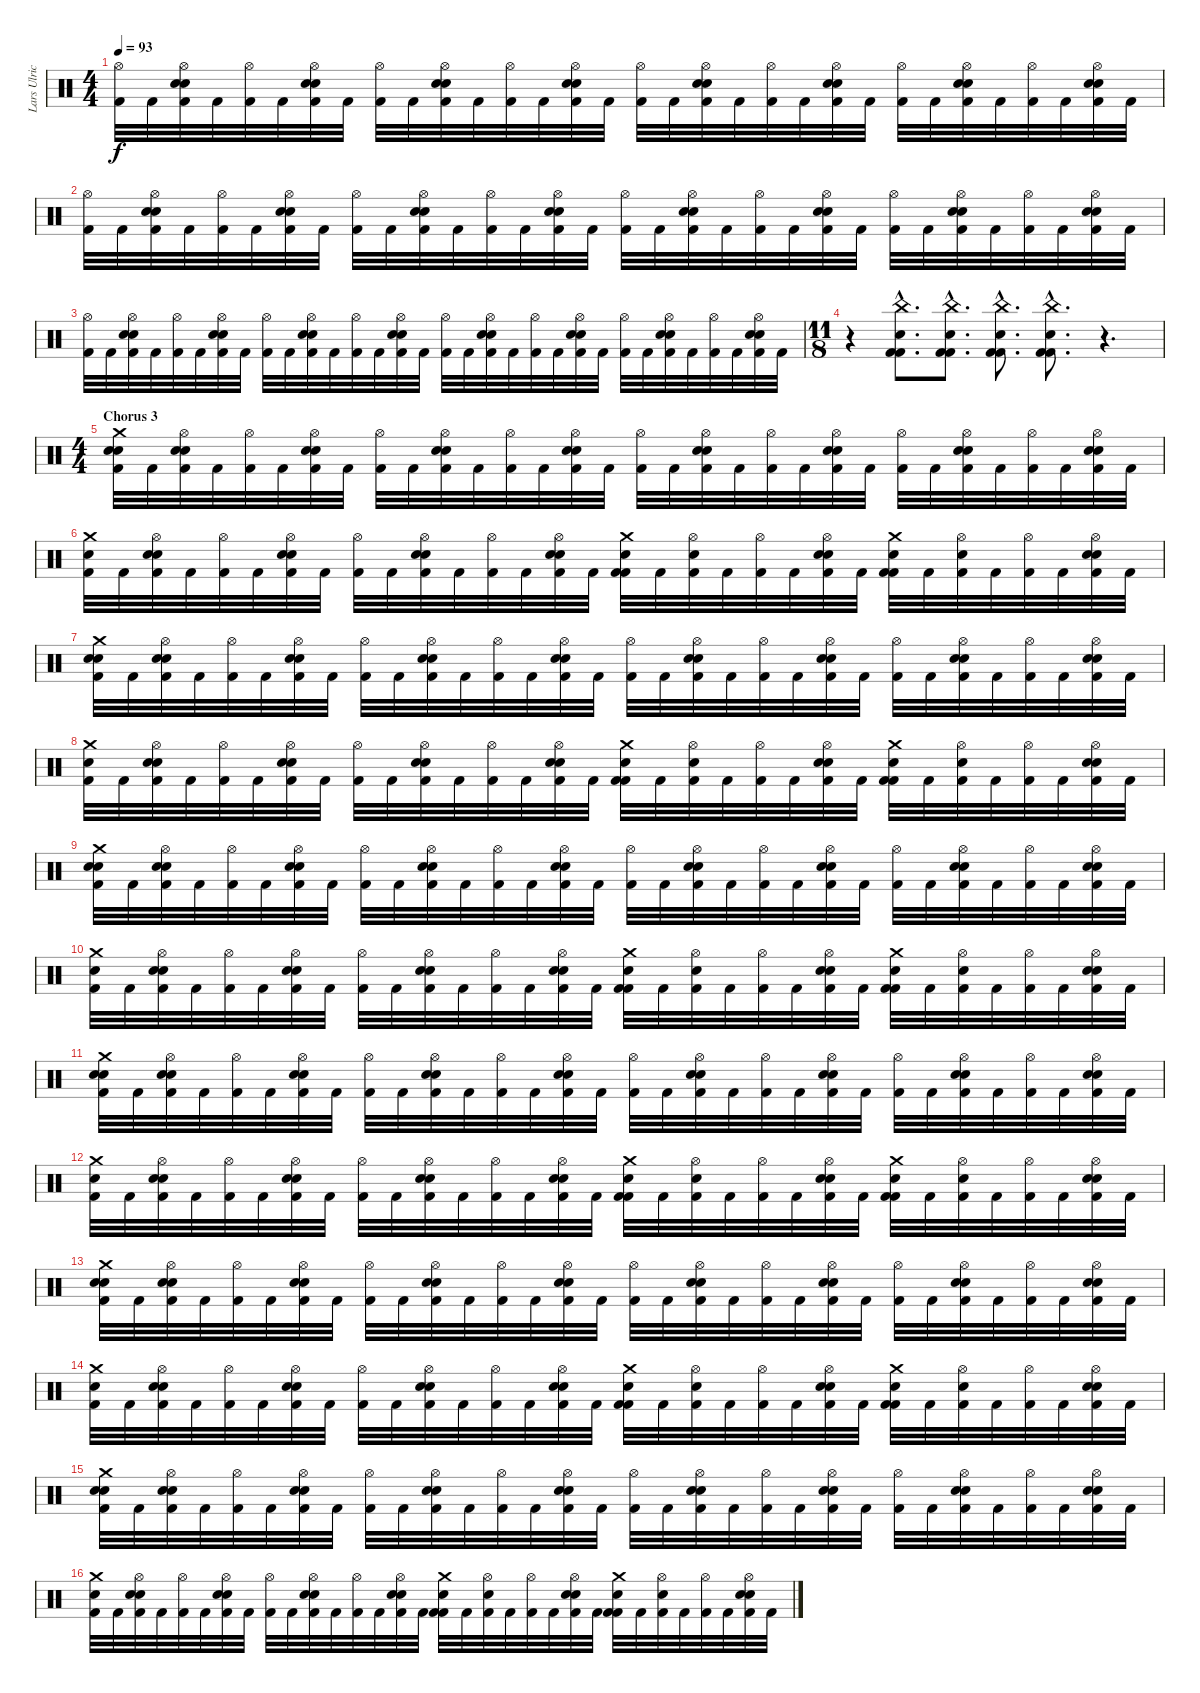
\track ("Lars Ulrich" "Lars Ulric") {instrument percussion}
\staff {score}
\articulation defaults
\ts (4 4)
\tempo 93
\clef neutral
\ks c
("Hi-Hat (open)" "Kick (hit) 2").32{dy f} "Kick (hit) 2".32 ("Hi-Hat (open)" "Electric Snare (hit)" "Snare (hit) 2" "Kick (hit) 2").32 "Kick (hit) 2".32 ("Hi-Hat (open)" "Kick (hit) 2").32 "Kick (hit) 2".32 ("Hi-Hat (open)" "Electric Snare (hit)" "Snare (hit) 2" "Kick (hit) 2").32 "Kick (hit) 2".32 ("Hi-Hat (open)" "Kick (hit) 2").32 "Kick (hit) 2".32 ("Hi-Hat (open)" "Electric Snare (hit)" "Snare (hit) 2" "Kick (hit) 2").32 "Kick (hit) 2".32 ("Hi-Hat (open)" "Kick (hit) 2").32 "Kick (hit) 2".32 ("Hi-Hat (open)" "Electric Snare (hit)" "Snare (hit) 2" "Kick (hit) 2").32 "Kick (hit) 2".32 ("Hi-Hat (open)" "Kick (hit) 2").32 "Kick (hit) 2".32 ("Hi-Hat (open)" "Electric Snare (hit)" "Snare (hit) 2" "Kick (hit) 2").32 "Kick (hit) 2".32 ("Hi-Hat (open)" "Kick (hit) 2").32 "Kick (hit) 2".32 ("Hi-Hat (open)" "Electric Snare (hit)" "Snare (hit) 2" "Kick (hit) 2").32 "Kick (hit) 2".32 ("Hi-Hat (open)" "Kick (hit) 2").32 "Kick (hit) 2".32 ("Hi-Hat (open)" "Electric Snare (hit)" "Snare (hit) 2" "Kick (hit) 2").32 "Kick (hit) 2".32 ("Hi-Hat (open)" "Kick (hit) 2").32 "Kick (hit) 2".32 ("Hi-Hat (open)" "Electric Snare (hit)" "Snare (hit) 2" "Kick (hit) 2").32 "Kick (hit) 2".32 |
("Hi-Hat (open)" "Kick (hit) 2").32 "Kick (hit) 2".32 ("Hi-Hat (open)" "Electric Snare (hit)" "Snare (hit) 2" "Kick (hit) 2").32 "Kick (hit) 2".32 ("Hi-Hat (open)" "Kick (hit) 2").32 "Kick (hit) 2".32 ("Hi-Hat (open)" "Electric Snare (hit)" "Snare (hit) 2" "Kick (hit) 2").32 "Kick (hit) 2".32 ("Hi-Hat (open)" "Kick (hit) 2").32 "Kick (hit) 2".32 ("Hi-Hat (open)" "Electric Snare (hit)" "Snare (hit) 2" "Kick (hit) 2").32 "Kick (hit) 2".32 ("Hi-Hat (open)" "Kick (hit) 2").32 "Kick (hit) 2".32 ("Hi-Hat (open)" "Electric Snare (hit)" "Snare (hit) 2" "Kick (hit) 2").32 "Kick (hit) 2".32 ("Hi-Hat (open)" "Kick (hit) 2").32 "Kick (hit) 2".32 ("Hi-Hat (open)" "Electric Snare (hit)" "Snare (hit) 2" "Kick (hit) 2").32 "Kick (hit) 2".32 ("Hi-Hat (open)" "Kick (hit) 2").32 "Kick (hit) 2".32 ("Hi-Hat (open)" "Electric Snare (hit)" "Snare (hit) 2" "Kick (hit) 2").32 "Kick (hit) 2".32 ("Hi-Hat (open)" "Kick (hit) 2").32 "Kick (hit) 2".32 ("Hi-Hat (open)" "Electric Snare (hit)" "Snare (hit) 2" "Kick (hit) 2").32 "Kick (hit) 2".32 ("Hi-Hat (open)" "Kick (hit) 2").32 "Kick (hit) 2".32 ("Hi-Hat (open)" "Electric Snare (hit)" "Snare (hit) 2" "Kick (hit) 2").32 "Kick (hit) 2".32 |
("Hi-Hat (open)" "Kick (hit) 2").32 "Kick (hit) 2".32 ("Hi-Hat (open)" "Electric Snare (hit)" "Snare (hit) 2" "Kick (hit) 2").32 "Kick (hit) 2".32 ("Hi-Hat (open)" "Kick (hit) 2").32 "Kick (hit) 2".32 ("Hi-Hat (open)" "Electric Snare (hit)" "Snare (hit) 2" "Kick (hit) 2").32 "Kick (hit) 2".32 ("Hi-Hat (open)" "Kick (hit) 2").32 "Kick (hit) 2".32 ("Hi-Hat (open)" "Electric Snare (hit)" "Snare (hit) 2" "Kick (hit) 2").32 "Kick (hit) 2".32 ("Hi-Hat (open)" "Kick (hit) 2").32 "Kick (hit) 2".32 ("Hi-Hat (open)" "Electric Snare (hit)" "Snare (hit) 2" "Kick (hit) 2").32 "Kick (hit) 2".32 ("Hi-Hat (open)" "Kick (hit) 2").32 "Kick (hit) 2".32 ("Hi-Hat (open)" "Electric Snare (hit)" "Snare (hit) 2" "Kick (hit) 2").32 "Kick (hit) 2".32 ("Hi-Hat (open)" "Kick (hit) 2").32 "Kick (hit) 2".32 ("Hi-Hat (open)" "Electric Snare (hit)" "Snare (hit) 2" "Kick (hit) 2").32 "Kick (hit) 2".32 ("Hi-Hat (open)" "Kick (hit) 2").32 "Kick (hit) 2".32 ("Hi-Hat (open)" "Electric Snare (hit)" "Snare (hit) 2" "Kick (hit) 2").32 "Kick (hit) 2".32 ("Hi-Hat (open)" "Kick (hit) 2").32 "Kick (hit) 2".32 ("Hi-Hat (open)" "Electric Snare (hit)" "Snare (hit) 2" "Kick (hit) 2").32 "Kick (hit) 2".32 |
\ts (11 8)
r.4 ("China (hit)"{hac} "Electric Snare (hit)"{hac} "Kick (hit) 2"{hac} "Kick (hit) 2"{hac}).8{d} ("China (hit)"{hac} "Electric Snare (hit)"{hac} "Kick (hit) 2"{hac} "Kick (hit) 2"{hac}).8{d} ("China (hit)"{hac} "Electric Snare (hit)"{hac} "Kick (hit) 2"{hac} "Kick (hit) 2"{hac}).8{d} ("China (hit)"{hac} "Electric Snare (hit)"{hac} "Kick (hit) 2"{hac} "Kick (hit) 2"{hac}).8{d} r.4{d} |
\ts (4 4)
\section ("" "Chorus 3")
("Crash medium (hit)" "Snare (hit) 2" "Snare (hit) 2" "Kick (hit) 2").32 "Kick (hit) 2".32 ("Hi-Hat (open)" "Electric Snare (hit)" "Snare (hit) 2" "Kick (hit) 2").32 "Kick (hit) 2".32 ("Hi-Hat (open)" "Kick (hit) 2").32 "Kick (hit) 2".32 ("Hi-Hat (open)" "Electric Snare (hit)" "Snare (hit) 2" "Kick (hit) 2").32 "Kick (hit) 2".32 ("Hi-Hat (open)" "Kick (hit) 2").32 "Kick (hit) 2".32 ("Hi-Hat (open)" "Electric Snare (hit)" "Snare (hit) 2" "Kick (hit) 2").32 "Kick (hit) 2".32 ("Hi-Hat (open)" "Kick (hit) 2").32 "Kick (hit) 2".32 ("Hi-Hat (open)" "Electric Snare (hit)" "Snare (hit) 2" "Kick (hit) 2").32 "Kick (hit) 2".32 ("Hi-Hat (open)" "Kick (hit) 2").32 "Kick (hit) 2".32 ("Hi-Hat (open)" "Electric Snare (hit)" "Snare (hit) 2" "Kick (hit) 2").32 "Kick (hit) 2".32 ("Hi-Hat (open)" "Kick (hit) 2").32 "Kick (hit) 2".32 ("Hi-Hat (open)" "Electric Snare (hit)" "Snare (hit) 2" "Kick (hit) 2").32 "Kick (hit) 2".32 ("Hi-Hat (open)" "Kick (hit) 2").32 "Kick (hit) 2".32 ("Hi-Hat (open)" "Electric Snare (hit)" "Snare (hit) 2" "Kick (hit) 2").32 "Kick (hit) 2".32 ("Hi-Hat (open)" "Kick (hit) 2").32 "Kick (hit) 2".32 ("Hi-Hat (open)" "Electric Snare (hit)" "Snare (hit) 2" "Kick (hit) 2").32 "Kick (hit) 2".32 |
("Crash medium (hit)" "Snare (hit) 2" "Kick (hit) 2").32 "Kick (hit) 2".32 ("Hi-Hat (open)" "Electric Snare (hit)" "Snare (hit) 2" "Kick (hit) 2").32 "Kick (hit) 2".32 ("Hi-Hat (open)" "Kick (hit) 2").32 "Kick (hit) 2".32 ("Hi-Hat (open)" "Electric Snare (hit)" "Snare (hit) 2" "Kick (hit) 2").32 "Kick (hit) 2".32 ("Hi-Hat (open)" "Kick (hit) 2").32 "Kick (hit) 2".32 ("Hi-Hat (open)" "Electric Snare (hit)" "Snare (hit) 2" "Kick (hit) 2").32 "Kick (hit) 2".32 ("Hi-Hat (open)" "Kick (hit) 2").32 "Kick (hit) 2".32 ("Hi-Hat (open)" "Electric Snare (hit)" "Snare (hit) 2" "Kick (hit) 2").32 "Kick (hit) 2".32 ("Crash medium (hit)" "Snare (hit) 2" "Kick (hit) 2" "Kick (hit) 2").32 "Kick (hit) 2".32 ("Hi-Hat (open)" "Electric Snare (hit)" "Kick (hit) 2").32 "Kick (hit) 2".32 ("Hi-Hat (open)" "Kick (hit) 2").32 "Kick (hit) 2".32 ("Hi-Hat (open)" "Electric Snare (hit)" "Snare (hit) 2" "Kick (hit) 2").32 "Kick (hit) 2".32 ("Crash medium (hit)" "Snare (hit) 2" "Kick (hit) 2" "Kick (hit) 2").32 "Kick (hit) 2".32 ("Hi-Hat (open)" "Electric Snare (hit)" "Kick (hit) 2").32 "Kick (hit) 2".32 ("Hi-Hat (open)" "Kick (hit) 2").32 "Kick (hit) 2".32 ("Hi-Hat (open)" "Electric Snare (hit)" "Snare (hit) 2" "Kick (hit) 2").32 "Kick (hit) 2".32 |
("Crash medium (hit)" "Snare (hit) 2" "Snare (hit) 2" "Kick (hit) 2").32 "Kick (hit) 2".32 ("Hi-Hat (open)" "Electric Snare (hit)" "Snare (hit) 2" "Kick (hit) 2").32 "Kick (hit) 2".32 ("Hi-Hat (open)" "Kick (hit) 2").32 "Kick (hit) 2".32 ("Hi-Hat (open)" "Electric Snare (hit)" "Snare (hit) 2" "Kick (hit) 2").32 "Kick (hit) 2".32 ("Hi-Hat (open)" "Kick (hit) 2").32 "Kick (hit) 2".32 ("Hi-Hat (open)" "Electric Snare (hit)" "Snare (hit) 2" "Kick (hit) 2").32 "Kick (hit) 2".32 ("Hi-Hat (open)" "Kick (hit) 2").32 "Kick (hit) 2".32 ("Hi-Hat (open)" "Electric Snare (hit)" "Snare (hit) 2" "Kick (hit) 2").32 "Kick (hit) 2".32 ("Hi-Hat (open)" "Kick (hit) 2").32 "Kick (hit) 2".32 ("Hi-Hat (open)" "Electric Snare (hit)" "Snare (hit) 2" "Kick (hit) 2").32 "Kick (hit) 2".32 ("Hi-Hat (open)" "Kick (hit) 2").32 "Kick (hit) 2".32 ("Hi-Hat (open)" "Electric Snare (hit)" "Snare (hit) 2" "Kick (hit) 2").32 "Kick (hit) 2".32 ("Hi-Hat (open)" "Kick (hit) 2").32 "Kick (hit) 2".32 ("Hi-Hat (open)" "Electric Snare (hit)" "Snare (hit) 2" "Kick (hit) 2").32 "Kick (hit) 2".32 ("Hi-Hat (open)" "Kick (hit) 2").32 "Kick (hit) 2".32 ("Hi-Hat (open)" "Electric Snare (hit)" "Snare (hit) 2" "Kick (hit) 2").32 "Kick (hit) 2".32 |
("Crash medium (hit)" "Snare (hit) 2" "Kick (hit) 2").32 "Kick (hit) 2".32 ("Hi-Hat (open)" "Electric Snare (hit)" "Snare (hit) 2" "Kick (hit) 2").32 "Kick (hit) 2".32 ("Hi-Hat (open)" "Kick (hit) 2").32 "Kick (hit) 2".32 ("Hi-Hat (open)" "Electric Snare (hit)" "Snare (hit) 2" "Kick (hit) 2").32 "Kick (hit) 2".32 ("Hi-Hat (open)" "Kick (hit) 2").32 "Kick (hit) 2".32 ("Hi-Hat (open)" "Electric Snare (hit)" "Snare (hit) 2" "Kick (hit) 2").32 "Kick (hit) 2".32 ("Hi-Hat (open)" "Kick (hit) 2").32 "Kick (hit) 2".32 ("Hi-Hat (open)" "Electric Snare (hit)" "Snare (hit) 2" "Kick (hit) 2").32 "Kick (hit) 2".32 ("Crash medium (hit)" "Snare (hit) 2" "Kick (hit) 2" "Kick (hit) 2").32 "Kick (hit) 2".32 ("Hi-Hat (open)" "Electric Snare (hit)" "Kick (hit) 2").32 "Kick (hit) 2".32 ("Hi-Hat (open)" "Kick (hit) 2").32 "Kick (hit) 2".32 ("Hi-Hat (open)" "Electric Snare (hit)" "Snare (hit) 2" "Kick (hit) 2").32 "Kick (hit) 2".32 ("Crash medium (hit)" "Snare (hit) 2" "Kick (hit) 2" "Kick (hit) 2").32 "Kick (hit) 2".32 ("Hi-Hat (open)" "Electric Snare (hit)" "Kick (hit) 2").32 "Kick (hit) 2".32 ("Hi-Hat (open)" "Kick (hit) 2").32 "Kick (hit) 2".32 ("Hi-Hat (open)" "Electric Snare (hit)" "Snare (hit) 2" "Kick (hit) 2").32 "Kick (hit) 2".32 |
("Crash medium (hit)" "Snare (hit) 2" "Snare (hit) 2" "Kick (hit) 2").32 "Kick (hit) 2".32 ("Hi-Hat (open)" "Electric Snare (hit)" "Snare (hit) 2" "Kick (hit) 2").32 "Kick (hit) 2".32 ("Hi-Hat (open)" "Kick (hit) 2").32 "Kick (hit) 2".32 ("Hi-Hat (open)" "Electric Snare (hit)" "Snare (hit) 2" "Kick (hit) 2").32 "Kick (hit) 2".32 ("Hi-Hat (open)" "Kick (hit) 2").32 "Kick (hit) 2".32 ("Hi-Hat (open)" "Electric Snare (hit)" "Snare (hit) 2" "Kick (hit) 2").32 "Kick (hit) 2".32 ("Hi-Hat (open)" "Kick (hit) 2").32 "Kick (hit) 2".32 ("Hi-Hat (open)" "Electric Snare (hit)" "Snare (hit) 2" "Kick (hit) 2").32 "Kick (hit) 2".32 ("Hi-Hat (open)" "Kick (hit) 2").32 "Kick (hit) 2".32 ("Hi-Hat (open)" "Electric Snare (hit)" "Snare (hit) 2" "Kick (hit) 2").32 "Kick (hit) 2".32 ("Hi-Hat (open)" "Kick (hit) 2").32 "Kick (hit) 2".32 ("Hi-Hat (open)" "Electric Snare (hit)" "Snare (hit) 2" "Kick (hit) 2").32 "Kick (hit) 2".32 ("Hi-Hat (open)" "Kick (hit) 2").32 "Kick (hit) 2".32 ("Hi-Hat (open)" "Electric Snare (hit)" "Snare (hit) 2" "Kick (hit) 2").32 "Kick (hit) 2".32 ("Hi-Hat (open)" "Kick (hit) 2").32 "Kick (hit) 2".32 ("Hi-Hat (open)" "Electric Snare (hit)" "Snare (hit) 2" "Kick (hit) 2").32 "Kick (hit) 2".32 |
("Crash medium (hit)" "Snare (hit) 2" "Kick (hit) 2").32 "Kick (hit) 2".32 ("Hi-Hat (open)" "Electric Snare (hit)" "Snare (hit) 2" "Kick (hit) 2").32 "Kick (hit) 2".32 ("Hi-Hat (open)" "Kick (hit) 2").32 "Kick (hit) 2".32 ("Hi-Hat (open)" "Electric Snare (hit)" "Snare (hit) 2" "Kick (hit) 2").32 "Kick (hit) 2".32 ("Hi-Hat (open)" "Kick (hit) 2").32 "Kick (hit) 2".32 ("Hi-Hat (open)" "Electric Snare (hit)" "Snare (hit) 2" "Kick (hit) 2").32 "Kick (hit) 2".32 ("Hi-Hat (open)" "Kick (hit) 2").32 "Kick (hit) 2".32 ("Hi-Hat (open)" "Electric Snare (hit)" "Snare (hit) 2" "Kick (hit) 2").32 "Kick (hit) 2".32 ("Crash medium (hit)" "Snare (hit) 2" "Kick (hit) 2" "Kick (hit) 2").32 "Kick (hit) 2".32 ("Hi-Hat (open)" "Electric Snare (hit)" "Kick (hit) 2").32 "Kick (hit) 2".32 ("Hi-Hat (open)" "Kick (hit) 2").32 "Kick (hit) 2".32 ("Hi-Hat (open)" "Electric Snare (hit)" "Snare (hit) 2" "Kick (hit) 2").32 "Kick (hit) 2".32 ("Crash medium (hit)" "Snare (hit) 2" "Kick (hit) 2" "Kick (hit) 2").32 "Kick (hit) 2".32 ("Hi-Hat (open)" "Electric Snare (hit)" "Kick (hit) 2").32 "Kick (hit) 2".32 ("Hi-Hat (open)" "Kick (hit) 2").32 "Kick (hit) 2".32 ("Hi-Hat (open)" "Electric Snare (hit)" "Snare (hit) 2" "Kick (hit) 2").32 "Kick (hit) 2".32 |
("Crash medium (hit)" "Snare (hit) 2" "Snare (hit) 2" "Kick (hit) 2").32 "Kick (hit) 2".32 ("Hi-Hat (open)" "Electric Snare (hit)" "Snare (hit) 2" "Kick (hit) 2").32 "Kick (hit) 2".32 ("Hi-Hat (open)" "Kick (hit) 2").32 "Kick (hit) 2".32 ("Hi-Hat (open)" "Electric Snare (hit)" "Snare (hit) 2" "Kick (hit) 2").32 "Kick (hit) 2".32 ("Hi-Hat (open)" "Kick (hit) 2").32 "Kick (hit) 2".32 ("Hi-Hat (open)" "Electric Snare (hit)" "Snare (hit) 2" "Kick (hit) 2").32 "Kick (hit) 2".32 ("Hi-Hat (open)" "Kick (hit) 2").32 "Kick (hit) 2".32 ("Hi-Hat (open)" "Electric Snare (hit)" "Snare (hit) 2" "Kick (hit) 2").32 "Kick (hit) 2".32 ("Hi-Hat (open)" "Kick (hit) 2").32 "Kick (hit) 2".32 ("Hi-Hat (open)" "Electric Snare (hit)" "Snare (hit) 2" "Kick (hit) 2").32 "Kick (hit) 2".32 ("Hi-Hat (open)" "Kick (hit) 2").32 "Kick (hit) 2".32 ("Hi-Hat (open)" "Electric Snare (hit)" "Snare (hit) 2" "Kick (hit) 2").32 "Kick (hit) 2".32 ("Hi-Hat (open)" "Kick (hit) 2").32 "Kick (hit) 2".32 ("Hi-Hat (open)" "Electric Snare (hit)" "Snare (hit) 2" "Kick (hit) 2").32 "Kick (hit) 2".32 ("Hi-Hat (open)" "Kick (hit) 2").32 "Kick (hit) 2".32 ("Hi-Hat (open)" "Electric Snare (hit)" "Snare (hit) 2" "Kick (hit) 2").32 "Kick (hit) 2".32 |
("Crash medium (hit)" "Snare (hit) 2" "Kick (hit) 2").32 "Kick (hit) 2".32 ("Hi-Hat (open)" "Electric Snare (hit)" "Snare (hit) 2" "Kick (hit) 2").32 "Kick (hit) 2".32 ("Hi-Hat (open)" "Kick (hit) 2").32 "Kick (hit) 2".32 ("Hi-Hat (open)" "Electric Snare (hit)" "Snare (hit) 2" "Kick (hit) 2").32 "Kick (hit) 2".32 ("Hi-Hat (open)" "Kick (hit) 2").32 "Kick (hit) 2".32 ("Hi-Hat (open)" "Electric Snare (hit)" "Snare (hit) 2" "Kick (hit) 2").32 "Kick (hit) 2".32 ("Hi-Hat (open)" "Kick (hit) 2").32 "Kick (hit) 2".32 ("Hi-Hat (open)" "Electric Snare (hit)" "Snare (hit) 2" "Kick (hit) 2").32 "Kick (hit) 2".32 ("Crash medium (hit)" "Snare (hit) 2" "Kick (hit) 2" "Kick (hit) 2").32 "Kick (hit) 2".32 ("Hi-Hat (open)" "Electric Snare (hit)" "Kick (hit) 2").32 "Kick (hit) 2".32 ("Hi-Hat (open)" "Kick (hit) 2").32 "Kick (hit) 2".32 ("Hi-Hat (open)" "Electric Snare (hit)" "Snare (hit) 2" "Kick (hit) 2").32 "Kick (hit) 2".32 ("Crash medium (hit)" "Snare (hit) 2" "Kick (hit) 2" "Kick (hit) 2").32 "Kick (hit) 2".32 ("Hi-Hat (open)" "Electric Snare (hit)" "Kick (hit) 2").32 "Kick (hit) 2".32 ("Hi-Hat (open)" "Kick (hit) 2").32 "Kick (hit) 2".32 ("Hi-Hat (open)" "Electric Snare (hit)" "Snare (hit) 2" "Kick (hit) 2").32 "Kick (hit) 2".32 |
("Crash medium (hit)" "Snare (hit) 2" "Snare (hit) 2" "Kick (hit) 2").32 "Kick (hit) 2".32 ("Hi-Hat (open)" "Electric Snare (hit)" "Snare (hit) 2" "Kick (hit) 2").32 "Kick (hit) 2".32 ("Hi-Hat (open)" "Kick (hit) 2").32 "Kick (hit) 2".32 ("Hi-Hat (open)" "Electric Snare (hit)" "Snare (hit) 2" "Kick (hit) 2").32 "Kick (hit) 2".32 ("Hi-Hat (open)" "Kick (hit) 2").32 "Kick (hit) 2".32 ("Hi-Hat (open)" "Electric Snare (hit)" "Snare (hit) 2" "Kick (hit) 2").32 "Kick (hit) 2".32 ("Hi-Hat (open)" "Kick (hit) 2").32 "Kick (hit) 2".32 ("Hi-Hat (open)" "Electric Snare (hit)" "Snare (hit) 2" "Kick (hit) 2").32 "Kick (hit) 2".32 ("Hi-Hat (open)" "Kick (hit) 2").32 "Kick (hit) 2".32 ("Hi-Hat (open)" "Electric Snare (hit)" "Snare (hit) 2" "Kick (hit) 2").32 "Kick (hit) 2".32 ("Hi-Hat (open)" "Kick (hit) 2").32 "Kick (hit) 2".32 ("Hi-Hat (open)" "Electric Snare (hit)" "Snare (hit) 2" "Kick (hit) 2").32 "Kick (hit) 2".32 ("Hi-Hat (open)" "Kick (hit) 2").32 "Kick (hit) 2".32 ("Hi-Hat (open)" "Electric Snare (hit)" "Snare (hit) 2" "Kick (hit) 2").32 "Kick (hit) 2".32 ("Hi-Hat (open)" "Kick (hit) 2").32 "Kick (hit) 2".32 ("Hi-Hat (open)" "Electric Snare (hit)" "Snare (hit) 2" "Kick (hit) 2").32 "Kick (hit) 2".32 |
("Crash medium (hit)" "Snare (hit) 2" "Kick (hit) 2").32 "Kick (hit) 2".32 ("Hi-Hat (open)" "Electric Snare (hit)" "Snare (hit) 2" "Kick (hit) 2").32 "Kick (hit) 2".32 ("Hi-Hat (open)" "Kick (hit) 2").32 "Kick (hit) 2".32 ("Hi-Hat (open)" "Electric Snare (hit)" "Snare (hit) 2" "Kick (hit) 2").32 "Kick (hit) 2".32 ("Hi-Hat (open)" "Kick (hit) 2").32 "Kick (hit) 2".32 ("Hi-Hat (open)" "Electric Snare (hit)" "Snare (hit) 2" "Kick (hit) 2").32 "Kick (hit) 2".32 ("Hi-Hat (open)" "Kick (hit) 2").32 "Kick (hit) 2".32 ("Hi-Hat (open)" "Electric Snare (hit)" "Snare (hit) 2" "Kick (hit) 2").32 "Kick (hit) 2".32 ("Crash medium (hit)" "Snare (hit) 2" "Kick (hit) 2" "Kick (hit) 2").32 "Kick (hit) 2".32 ("Hi-Hat (open)" "Electric Snare (hit)" "Kick (hit) 2").32 "Kick (hit) 2".32 ("Hi-Hat (open)" "Kick (hit) 2").32 "Kick (hit) 2".32 ("Hi-Hat (open)" "Electric Snare (hit)" "Snare (hit) 2" "Kick (hit) 2").32 "Kick (hit) 2".32 ("Crash medium (hit)" "Snare (hit) 2" "Kick (hit) 2" "Kick (hit) 2").32 "Kick (hit) 2".32 ("Hi-Hat (open)" "Electric Snare (hit)" "Kick (hit) 2").32 "Kick (hit) 2".32 ("Hi-Hat (open)" "Kick (hit) 2").32 "Kick (hit) 2".32 ("Hi-Hat (open)" "Electric Snare (hit)" "Snare (hit) 2" "Kick (hit) 2").32 "Kick (hit) 2".32 |
("Crash medium (hit)" "Snare (hit) 2" "Snare (hit) 2" "Kick (hit) 2").32 "Kick (hit) 2".32 ("Hi-Hat (open)" "Electric Snare (hit)" "Snare (hit) 2" "Kick (hit) 2").32 "Kick (hit) 2".32 ("Hi-Hat (open)" "Kick (hit) 2").32 "Kick (hit) 2".32 ("Hi-Hat (open)" "Electric Snare (hit)" "Snare (hit) 2" "Kick (hit) 2").32 "Kick (hit) 2".32 ("Hi-Hat (open)" "Kick (hit) 2").32 "Kick (hit) 2".32 ("Hi-Hat (open)" "Electric Snare (hit)" "Snare (hit) 2" "Kick (hit) 2").32 "Kick (hit) 2".32 ("Hi-Hat (open)" "Kick (hit) 2").32 "Kick (hit) 2".32 ("Hi-Hat (open)" "Electric Snare (hit)" "Snare (hit) 2" "Kick (hit) 2").32 "Kick (hit) 2".32 ("Hi-Hat (open)" "Kick (hit) 2").32 "Kick (hit) 2".32 ("Hi-Hat (open)" "Electric Snare (hit)" "Snare (hit) 2" "Kick (hit) 2").32 "Kick (hit) 2".32 ("Hi-Hat (open)" "Kick (hit) 2").32 "Kick (hit) 2".32 ("Hi-Hat (open)" "Electric Snare (hit)" "Snare (hit) 2" "Kick (hit) 2").32 "Kick (hit) 2".32 ("Hi-Hat (open)" "Kick (hit) 2").32 "Kick (hit) 2".32 ("Hi-Hat (open)" "Electric Snare (hit)" "Snare (hit) 2" "Kick (hit) 2").32 "Kick (hit) 2".32 ("Hi-Hat (open)" "Kick (hit) 2").32 "Kick (hit) 2".32 ("Hi-Hat (open)" "Electric Snare (hit)" "Snare (hit) 2" "Kick (hit) 2").32 "Kick (hit) 2".32 |
("Crash medium (hit)" "Snare (hit) 2" "Kick (hit) 2").32 "Kick (hit) 2".32 ("Hi-Hat (open)" "Electric Snare (hit)" "Snare (hit) 2" "Kick (hit) 2").32 "Kick (hit) 2".32 ("Hi-Hat (open)" "Kick (hit) 2").32 "Kick (hit) 2".32 ("Hi-Hat (open)" "Electric Snare (hit)" "Snare (hit) 2" "Kick (hit) 2").32 "Kick (hit) 2".32 ("Hi-Hat (open)" "Kick (hit) 2").32 "Kick (hit) 2".32 ("Hi-Hat (open)" "Electric Snare (hit)" "Snare (hit) 2" "Kick (hit) 2").32 "Kick (hit) 2".32 ("Hi-Hat (open)" "Kick (hit) 2").32 "Kick (hit) 2".32 ("Hi-Hat (open)" "Electric Snare (hit)" "Snare (hit) 2" "Kick (hit) 2").32 "Kick (hit) 2".32 ("Crash medium (hit)" "Snare (hit) 2" "Kick (hit) 2" "Kick (hit) 2").32 "Kick (hit) 2".32 ("Hi-Hat (open)" "Electric Snare (hit)" "Kick (hit) 2").32 "Kick (hit) 2".32 ("Hi-Hat (open)" "Kick (hit) 2").32 "Kick (hit) 2".32 ("Hi-Hat (open)" "Electric Snare (hit)" "Snare (hit) 2" "Kick (hit) 2").32 "Kick (hit) 2".32 ("Crash medium (hit)" "Snare (hit) 2" "Kick (hit) 2" "Kick (hit) 2").32 "Kick (hit) 2".32 ("Hi-Hat (open)" "Electric Snare (hit)" "Kick (hit) 2").32 "Kick (hit) 2".32 ("Hi-Hat (open)" "Kick (hit) 2").32 "Kick (hit) 2".32 ("Hi-Hat (open)" "Electric Snare (hit)" "Snare (hit) 2" "Kick (hit) 2").32 "Kick (hit) 2".32
